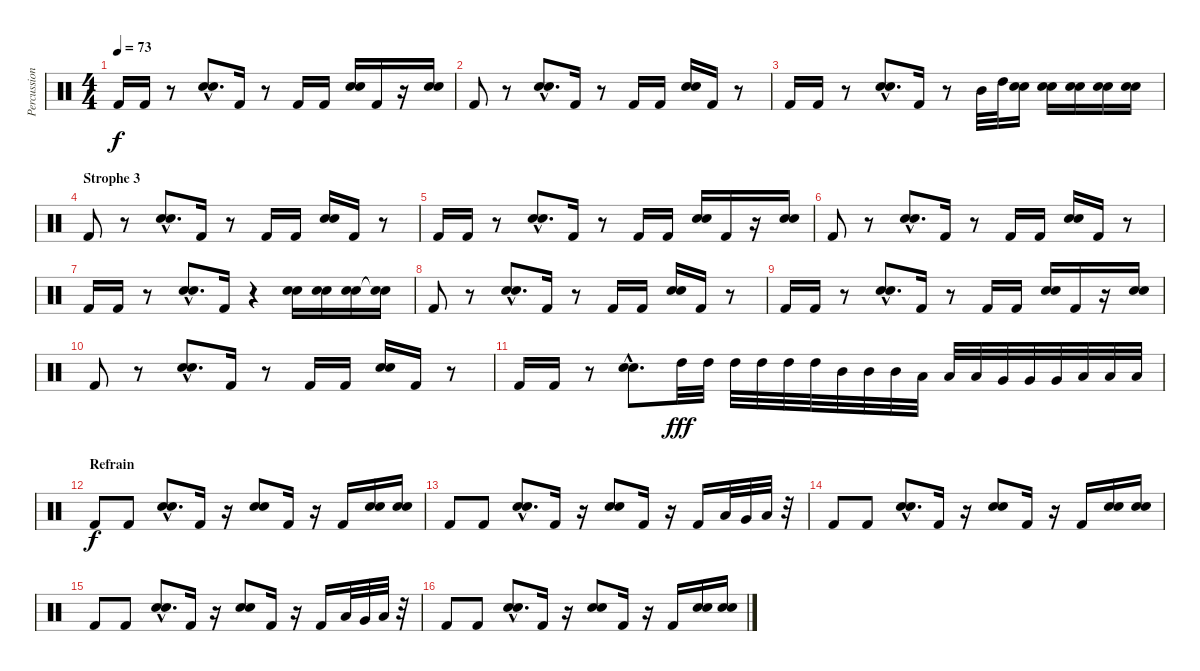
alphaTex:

\track ("Percussions" "Percussion") {instrument percussion}
\staff {score}
\articulation defaults
\ts (4 4)
\tempo 73
\clef neutral
\ks c "Kick (hit) 2".16{dy f} "Kick (hit) 2".16
r.8 ("Electric Snare (hit)"{hac} "Snare (hit) 2"{hac}).8{d} "Kick (hit) 2".16 r.8 "Kick (hit) 2".16 "Kick (hit) 2".16 ("Electric Snare (hit)" "Snare (hit) 2").16 "Kick (hit) 2".16 r.16 ("Electric Snare (hit)" "Snare (hit) 2").16 |
"Kick (hit) 2".8 r.8 ("Electric Snare (hit)"{hac} "Snare (hit) 2"{hac}).8{d} "Kick (hit) 2".16 r.8 "Kick (hit) 2".16 "Kick (hit) 2".16 ("Electric Snare (hit)" "Snare (hit) 2").16 "Kick (hit) 2".16 r.8 |
"Kick (hit) 2".16 "Kick (hit) 2".16 r.8 ("Electric Snare (hit)"{hac} "Snare (hit) 2"{hac}).8{d} "Kick (hit) 2".16 r.8 "Mid Tom (hit)".32 "High Tom (hit)".32 ("Electric Snare (hit)" "Snare (hit) 2").16 ("Electric Snare (hit)" "Snare (hit) 2").16 ("Electric Snare (hit)" "Snare (hit) 2").16 ("Electric Snare (hit)" "Snare (hit) 2").16 ("Electric Snare (hit)" "Snare (hit) 2").16 |
\section ("" "Strophe 3")
"Kick (hit) 2".8 r.8 ("Electric Snare (hit)"{hac} "Snare (hit) 2"{hac}).8{d} "Kick (hit) 2".16 r.8 "Kick (hit) 2".16 "Kick (hit) 2".16 ("Electric Snare (hit)" "Snare (hit) 2").16 "Kick (hit) 2".16 r.8 |
"Kick (hit) 2".16 "Kick (hit) 2".16 r.8 ("Electric Snare (hit)"{hac} "Snare (hit) 2"{hac}).8{d} "Kick (hit) 2".16 r.8 "Kick (hit) 2".16 "Kick (hit) 2".16 ("Electric Snare (hit)" "Snare (hit) 2").16 "Kick (hit) 2".16 r.16 ("Electric Snare (hit)" "Snare (hit) 2").16 |
"Kick (hit) 2".8 r.8 ("Electric Snare (hit)"{hac} "Snare (hit) 2"{hac}).8{d} "Kick (hit) 2".16 r.8 "Kick (hit) 2".16 "Kick (hit) 2".16 ("Electric Snare (hit)" "Snare (hit) 2").16 "Kick (hit) 2".16 r.8 |
"Kick (hit) 2".16 "Kick (hit) 2".16 r.8 ("Electric Snare (hit)"{hac} "Snare (hit) 2"{hac}).8{d} "Kick (hit) 2".16 r.4 ("Electric Snare (hit)" "Snare (hit) 2").16 ("Electric Snare (hit)" "Snare (hit) 2").16 ("Electric Snare (hit)" "Snare (hit) 2").16 ("Snare (hit)"{t} "Snare (hit)"{t}).16 |
"Kick (hit) 2".8 r.8 ("Electric Snare (hit)"{hac} "Snare (hit) 2"{hac}).8{d} "Kick (hit) 2".16 r.8 "Kick (hit) 2".16 "Kick (hit) 2".16 ("Electric Snare (hit)" "Snare (hit) 2").16 "Kick (hit) 2".16 r.8 |
"Kick (hit) 2".16 "Kick (hit) 2".16 r.8 ("Electric Snare (hit)"{hac} "Snare (hit) 2"{hac}).8{d} "Kick (hit) 2".16 r.8 "Kick (hit) 2".16 "Kick (hit) 2".16 ("Electric Snare (hit)" "Snare (hit) 2").16 "Kick (hit) 2".16 r.16 ("Electric Snare (hit)" "Snare (hit) 2").16 |
"Kick (hit) 2".8 r.8 ("Electric Snare (hit)"{hac} "Snare (hit) 2"{hac}).8{d} "Kick (hit) 2".16 r.8 "Kick (hit) 2".16 "Kick (hit) 2".16 ("Electric Snare (hit)" "Snare (hit) 2").16 "Kick (hit) 2".16 r.8 |
"Kick (hit) 2".16 "Kick (hit) 2".16 r.8 ("Electric Snare (hit)"{hac} "Snare (hit) 2"{hac}).8{d} "High Tom (hit)".32{dy fff} "High Tom (hit)".32 "High Tom (hit)".32 "High Tom (hit)".32 "High Tom (hit)".32 "High Tom (hit)".32 "Mid Tom (hit)".32 "Mid Tom (hit)".32 "Mid Tom (hit)".32 "Low Tom (hit)".32 "Low Tom (hit)".32 "Low Tom (hit)".32 "Very Low Tom (hit)".32 "Very Low Tom (hit)".32 "Very Low Tom (hit)".32 "Low Floor Tom (hit)".32 "Low Floor Tom (hit)".32 "Low Floor Tom (hit)".32 |
\section ("" "Refrain")
"Kick (hit) 2".8{dy f} "Kick (hit) 2".8 ("Electric Snare (hit)"{hac} "Snare (hit) 2"{hac}).8{d} "Kick (hit) 2".16 r.16 ("Electric Snare (hit)" "Snare (hit) 2").8 "Kick (hit) 2".16 r.16 "Kick (hit) 2".16 ("Electric Snare (hit)" "Snare (hit) 2").16 ("Electric Snare (hit)" "Snare (hit) 2").16 |
"Kick (hit) 2".8 "Kick (hit) 2".8 ("Electric Snare (hit)"{hac} "Snare (hit) 2"{hac}).8{d} "Kick (hit) 2".16 r.16 ("Electric Snare (hit)" "Snare (hit) 2").8 "Kick (hit) 2".16 r.16 "Kick (hit) 2".16 "Low Tom (hit)".32 "Very Low Tom (hit)".32 "Low Floor Tom (hit)".32 r.32 |
"Kick (hit) 2".8 "Kick (hit) 2".8 ("Electric Snare (hit)"{hac} "Snare (hit) 2"{hac}).8{d} "Kick (hit) 2".16 r.16 ("Electric Snare (hit)" "Snare (hit) 2").8 "Kick (hit) 2".16 r.16 "Kick (hit) 2".16 ("Electric Snare (hit)" "Snare (hit) 2").16 ("Electric Snare (hit)" "Snare (hit) 2").16 |
"Kick (hit) 2".8 "Kick (hit) 2".8 ("Electric Snare (hit)"{hac} "Snare (hit) 2"{hac}).8{d} "Kick (hit) 2".16 r.16 ("Electric Snare (hit)" "Snare (hit) 2").8 "Kick (hit) 2".16 r.16 "Kick (hit) 2".16 "Low Tom (hit)".32 "Very Low Tom (hit)".32 "Low Floor Tom (hit)".32 r.32 |
"Kick (hit) 2".8 "Kick (hit) 2".8 ("Electric Snare (hit)"{hac} "Snare (hit) 2"{hac}).8{d} "Kick (hit) 2".16 r.16 ("Electric Snare (hit)" "Snare (hit) 2").8 "Kick (hit) 2".16 r.16 "Kick (hit) 2".16 ("Electric Snare (hit)" "Snare (hit) 2").16 ("Electric Snare (hit)" "Snare (hit) 2").16
